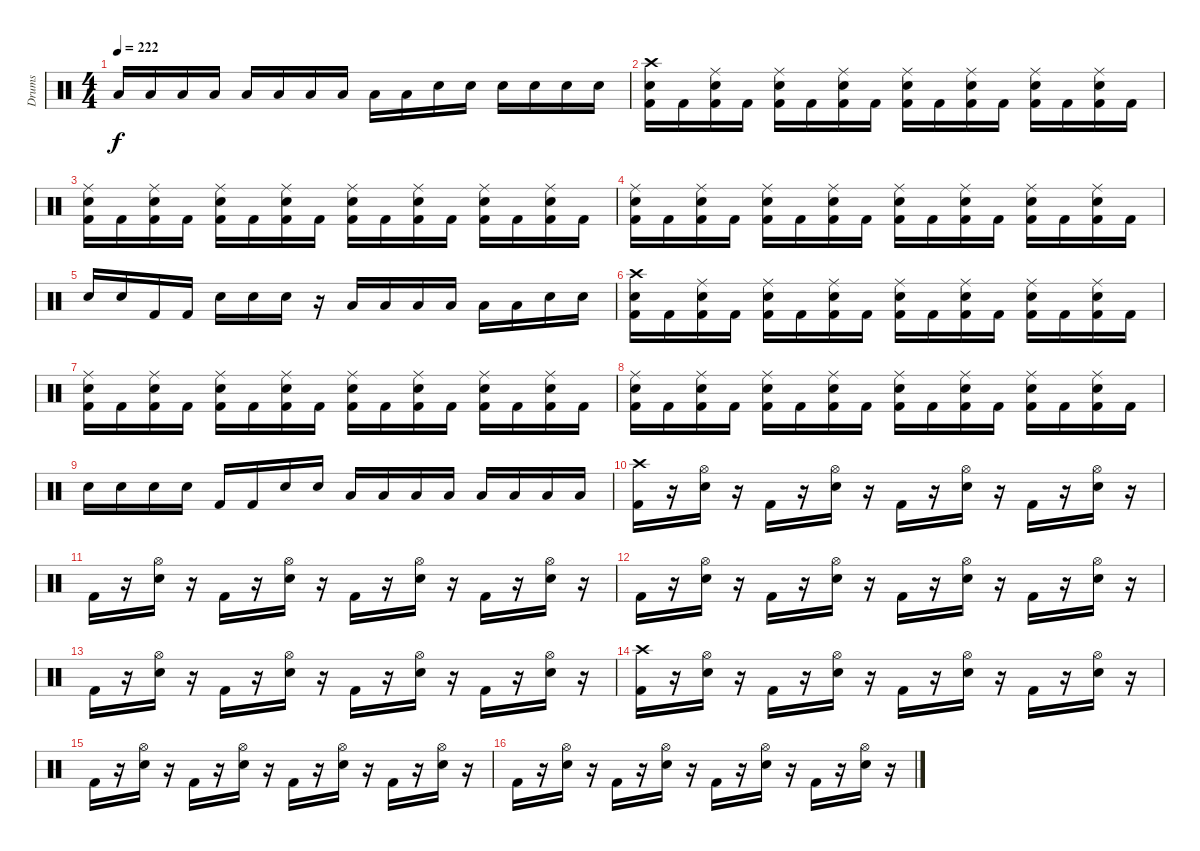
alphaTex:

\track ("Drums" "Drums") {instrument percussion}
\staff {score}
\articulation defaults
\ts (4 4)
\tempo 222
\clef neutral
\ks c "Low Tom (hit)".16{dy f} "Low Tom (hit)".16 "Low Tom (hit)".16 "Low Floor Tom (hit)".16 "Low Floor Tom (hit)".16 "Low Floor Tom (hit)".16 "Low Tom (hit)".16 "Low Tom (hit)".16 "Low Tom (hit)".16 "Low Tom (hit)".16 "Snare (hit) 2".16 "Snare (hit) 2".16 "Snare (hit) 2".16 "Snare (hit) 2".16 "Snare (hit) 2".16 "Snare (hit) 2".16
|
("Kick (hit) 2" "Snare (hit) 2" "Crash high (hit)").16 "Kick (hit) 2".16 ("Kick (hit) 2" "Snare (hit) 2" "Ride (middle)").16 "Kick (hit) 2".16 ("Kick (hit) 2" "Snare (hit) 2" "Ride (middle)").16 "Kick (hit) 2".16 ("Kick (hit) 2" "Snare (hit) 2" "Ride (middle)").16 "Kick (hit) 2".16 ("Kick (hit) 2" "Snare (hit) 2" "Ride (middle)").16 "Kick (hit) 2".16 ("Kick (hit) 2" "Snare (hit) 2" "Ride (middle)").16 "Kick (hit) 2".16 ("Kick (hit) 2" "Snare (hit) 2" "Ride (middle)").16 "Kick (hit) 2".16 ("Kick (hit) 2" "Snare (hit) 2" "Ride (middle)").16 "Kick (hit) 2".16 |
("Kick (hit) 2" "Snare (hit) 2" "Ride (middle)").16 "Kick (hit) 2".16 ("Kick (hit) 2" "Snare (hit) 2" "Ride (middle)").16 "Kick (hit) 2".16 ("Kick (hit) 2" "Snare (hit) 2" "Ride (middle)").16 "Kick (hit) 2".16 ("Kick (hit) 2" "Snare (hit) 2" "Ride (middle)").16 "Kick (hit) 2".16 ("Kick (hit) 2" "Snare (hit) 2" "Ride (middle)").16 "Kick (hit) 2".16 ("Kick (hit) 2" "Snare (hit) 2" "Ride (middle)").16 "Kick (hit) 2".16 ("Kick (hit) 2" "Snare (hit) 2" "Ride (middle)").16 "Kick (hit) 2".16 ("Kick (hit) 2" "Snare (hit) 2" "Ride (middle)").16 "Kick (hit) 2".16 |
("Kick (hit) 2" "Snare (hit) 2" "Ride (middle)").16 "Kick (hit) 2".16 ("Kick (hit) 2" "Snare (hit) 2" "Ride (middle)").16 "Kick (hit) 2".16 ("Kick (hit) 2" "Snare (hit) 2" "Ride (middle)").16 "Kick (hit) 2".16 ("Kick (hit) 2" "Snare (hit) 2" "Ride (middle)").16 "Kick (hit) 2".16 ("Kick (hit) 2" "Snare (hit) 2" "Ride (middle)").16 "Kick (hit) 2".16 ("Kick (hit) 2" "Snare (hit) 2" "Ride (middle)").16 "Kick (hit) 2".16 ("Kick (hit) 2" "Snare (hit) 2" "Ride (middle)").16 "Kick (hit) 2".16 ("Kick (hit) 2" "Snare (hit) 2" "Ride (middle)").16 "Kick (hit) 2".16 |
"Snare (hit) 2".16 "Snare (hit) 2".16 "Kick (hit) 2".16 "Kick (hit) 2".16 "Snare (hit) 2".16 "Snare (hit) 2".16 "Snare (hit) 2".16 r.16 "Low Floor Tom (hit)".16 "Low Floor Tom (hit)".16 "Low Floor Tom (hit)".16 "Low Tom (hit)".16 "Low Tom (hit)".16 "Low Tom (hit)".16 "Snare (hit) 2".16 "Snare (hit) 2".16 |
("Kick (hit) 2" "Snare (hit) 2" "Crash high (hit)").16 "Kick (hit) 2".16 ("Kick (hit) 2" "Snare (hit) 2" "Ride (middle)").16 "Kick (hit) 2".16 ("Kick (hit) 2" "Snare (hit) 2" "Ride (middle)").16 "Kick (hit) 2".16 ("Kick (hit) 2" "Snare (hit) 2" "Ride (middle)").16 "Kick (hit) 2".16 ("Kick (hit) 2" "Snare (hit) 2" "Ride (middle)").16 "Kick (hit) 2".16 ("Kick (hit) 2" "Snare (hit) 2" "Ride (middle)").16 "Kick (hit) 2".16 ("Kick (hit) 2" "Snare (hit) 2" "Ride (middle)").16 "Kick (hit) 2".16 ("Kick (hit) 2" "Snare (hit) 2" "Ride (middle)").16 "Kick (hit) 2".16 |
("Kick (hit) 2" "Snare (hit) 2" "Ride (middle)").16 "Kick (hit) 2".16 ("Kick (hit) 2" "Snare (hit) 2" "Ride (middle)").16 "Kick (hit) 2".16 ("Kick (hit) 2" "Snare (hit) 2" "Ride (middle)").16 "Kick (hit) 2".16 ("Kick (hit) 2" "Snare (hit) 2" "Ride (middle)").16 "Kick (hit) 2".16 ("Kick (hit) 2" "Snare (hit) 2" "Ride (middle)").16 "Kick (hit) 2".16 ("Kick (hit) 2" "Snare (hit) 2" "Ride (middle)").16 "Kick (hit) 2".16 ("Kick (hit) 2" "Snare (hit) 2" "Ride (middle)").16 "Kick (hit) 2".16 ("Kick (hit) 2" "Snare (hit) 2" "Ride (middle)").16 "Kick (hit) 2".16 |
("Kick (hit) 2" "Snare (hit) 2" "Ride (middle)").16 "Kick (hit) 2".16 ("Kick (hit) 2" "Snare (hit) 2" "Ride (middle)").16 "Kick (hit) 2".16 ("Kick (hit) 2" "Snare (hit) 2" "Ride (middle)").16 "Kick (hit) 2".16 ("Kick (hit) 2" "Snare (hit) 2" "Ride (middle)").16 "Kick (hit) 2".16 ("Kick (hit) 2" "Snare (hit) 2" "Ride (middle)").16 "Kick (hit) 2".16 ("Kick (hit) 2" "Snare (hit) 2" "Ride (middle)").16 "Kick (hit) 2".16 ("Kick (hit) 2" "Snare (hit) 2" "Ride (middle)").16 "Kick (hit) 2".16 ("Kick (hit) 2" "Snare (hit) 2" "Ride (middle)").16 "Kick (hit) 2".16 |
"Snare (hit) 2".16 "Snare (hit) 2".16 "Snare (hit) 2".16 "Snare (hit) 2".16 "Kick (hit) 2".16 "Kick (hit) 2".16 "Snare (hit) 2".16 "Snare (hit) 2".16 "Low Tom (hit)".16 "Low Tom (hit)".16 "Low Tom (hit)".16 "Low Tom (hit)".16 "Low Floor Tom (hit)".16 "Low Floor Tom (hit)".16 "Low Floor Tom (hit)".16 "Low Floor Tom (hit)".16 |
("Kick (hit) 2" "Crash high (hit)").16 r.16 ("Snare (hit) 2" "Hi-Hat (open)").16 r.16 "Kick (hit) 2".16 r.16 ("Snare (hit) 2" "Hi-Hat (open)").16 r.16 "Kick (hit) 2".16 r.16 ("Snare (hit) 2" "Hi-Hat (open)").16 r.16 "Kick (hit) 2".16 r.16 ("Snare (hit) 2" "Hi-Hat (open)").16 r.16 |
"Kick (hit) 2".16 r.16 ("Snare (hit) 2" "Hi-Hat (open)").16 r.16 "Kick (hit) 2".16 r.16 ("Snare (hit) 2" "Hi-Hat (open)").16 r.16 "Kick (hit) 2".16 r.16 ("Snare (hit) 2" "Hi-Hat (open)").16 r.16 "Kick (hit) 2".16 r.16 ("Snare (hit) 2" "Hi-Hat (open)").16 r.16 |
"Kick (hit) 2".16 r.16 ("Snare (hit) 2" "Hi-Hat (open)").16 r.16 "Kick (hit) 2".16 r.16 ("Snare (hit) 2" "Hi-Hat (open)").16 r.16 "Kick (hit) 2".16 r.16 ("Snare (hit) 2" "Hi-Hat (open)").16 r.16 "Kick (hit) 2".16 r.16 ("Snare (hit) 2" "Hi-Hat (open)").16 r.16 |
"Kick (hit) 2".16 r.16 ("Snare (hit) 2" "Hi-Hat (open)").16 r.16 "Kick (hit) 2".16 r.16 ("Snare (hit) 2" "Hi-Hat (open)").16 r.16 "Kick (hit) 2".16 r.16 ("Snare (hit) 2" "Hi-Hat (open)").16 r.16 "Kick (hit) 2".16 r.16 ("Snare (hit) 2" "Hi-Hat (open)").16 r.16 |
("Kick (hit) 2" "Crash high (hit)").16 r.16 ("Snare (hit) 2" "Hi-Hat (open)").16 r.16 "Kick (hit) 2".16 r.16 ("Snare (hit) 2" "Hi-Hat (open)").16 r.16 "Kick (hit) 2".16 r.16 ("Snare (hit) 2" "Hi-Hat (open)").16 r.16 "Kick (hit) 2".16 r.16 ("Snare (hit) 2" "Hi-Hat (open)").16 r.16 |
"Kick (hit) 2".16 r.16 ("Snare (hit) 2" "Hi-Hat (open)").16 r.16 "Kick (hit) 2".16 r.16 ("Snare (hit) 2" "Hi-Hat (open)").16 r.16 "Kick (hit) 2".16 r.16 ("Snare (hit) 2" "Hi-Hat (open)").16 r.16 "Kick (hit) 2".16 r.16 ("Snare (hit) 2" "Hi-Hat (open)").16 r.16 |
"Kick (hit) 2".16 r.16 ("Snare (hit) 2" "Hi-Hat (open)").16 r.16 "Kick (hit) 2".16 r.16 ("Snare (hit) 2" "Hi-Hat (open)").16 r.16 "Kick (hit) 2".16 r.16 ("Snare (hit) 2" "Hi-Hat (open)").16 r.16 "Kick (hit) 2".16 r.16 ("Snare (hit) 2" "Hi-Hat (open)").16 r.16
